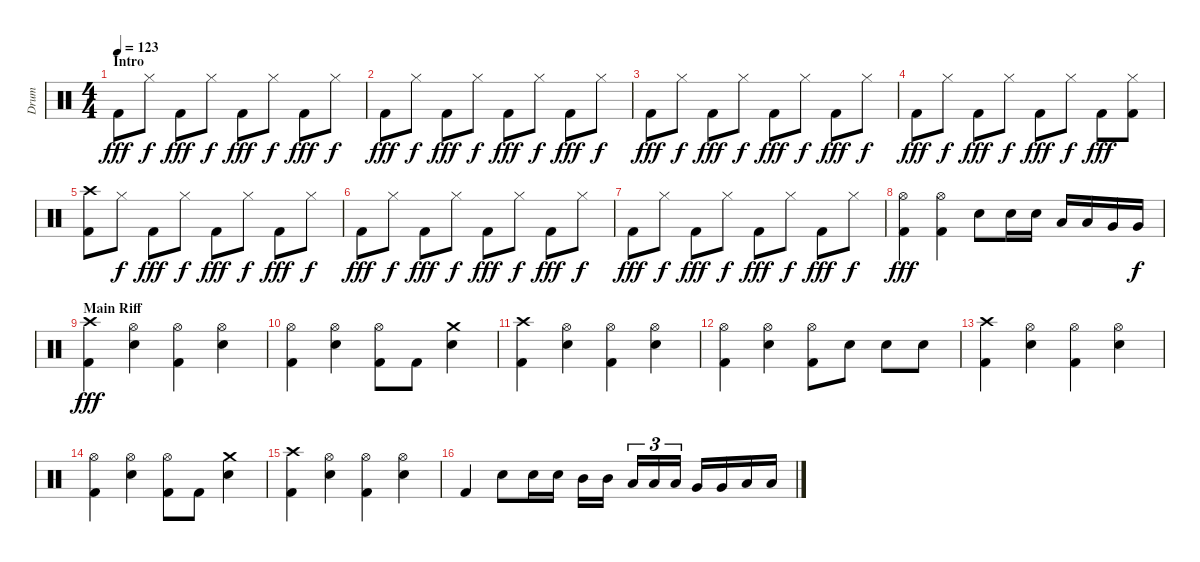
\track ("Drum" "Drum") {instrument percussion}
\staff {score}
\articulation defaults
\ts (4 4)
\section ("" "Intro")
\tempo 123
\clef neutral
\ks c "Kick (hit) 2".8{dy fff volume 11} "Hi-Hat (closed)".8{dy f} "Kick (hit) 2".8{dy fff} "Hi-Hat (closed)".8{dy f} "Kick (hit) 2".8{dy fff} "Hi-Hat (closed)".8{dy f} "Kick (hit) 2".8{dy fff} "Hi-Hat (closed)".8{dy f}
|
"Kick (hit) 2".8{dy fff} "Hi-Hat (closed)".8{dy f} "Kick (hit) 2".8{dy fff} "Hi-Hat (closed)".8{dy f} "Kick (hit) 2".8{dy fff} "Hi-Hat (closed)".8{dy f} "Kick (hit) 2".8{dy fff} "Hi-Hat (closed)".8{dy f} |
"Kick (hit) 2".8{dy fff} "Hi-Hat (closed)".8{dy f} "Kick (hit) 2".8{dy fff} "Hi-Hat (closed)".8{dy f} "Kick (hit) 2".8{dy fff} "Hi-Hat (closed)".8{dy f} "Kick (hit) 2".8{dy fff} "Hi-Hat (closed)".8{dy f} |
"Kick (hit) 2".8{dy fff} "Hi-Hat (closed)".8{dy f} "Kick (hit) 2".8{dy fff} "Hi-Hat (closed)".8{dy f} "Kick (hit) 2".8{dy fff} "Hi-Hat (closed)".8{dy f} "Kick (hit) 2".8{dy fff} ("Hi-Hat (closed)" "Kick (hit) 2").8 |
("Crash high (hit)" "Kick (hit) 2").8 "Hi-Hat (closed)".8{dy f} "Kick (hit) 2".8{dy fff} "Hi-Hat (closed)".8{dy f} "Kick (hit) 2".8{dy fff} "Hi-Hat (closed)".8{dy f} "Kick (hit) 2".8{dy fff} "Hi-Hat (closed)".8{dy f} |
"Kick (hit) 2".8{dy fff} "Hi-Hat (closed)".8{dy f} "Kick (hit) 2".8{dy fff} "Hi-Hat (closed)".8{dy f} "Kick (hit) 2".8{dy fff} "Hi-Hat (closed)".8{dy f} "Kick (hit) 2".8{dy fff} "Hi-Hat (closed)".8{dy f} |
"Kick (hit) 2".8{dy fff} "Hi-Hat (closed)".8{dy f} "Kick (hit) 2".8{dy fff} "Hi-Hat (closed)".8{dy f} "Kick (hit) 2".8{dy fff} "Hi-Hat (closed)".8{dy f} "Kick (hit) 2".8{dy fff} "Hi-Hat (closed)".8{dy f} |
("Hi-Hat (open)" "Kick (hit) 2").4{dy fff} ("Hi-Hat (open)" "Kick (hit) 2").4 "Electric Snare (hit)".8 "Electric Snare (hit)".16 "Electric Snare (hit)".16 "Low Tom (hit)".16 "Low Tom (hit)".16 "Very Low Tom (hit)".16 "Very Low Tom (hit)".16{dy f} |
\section ("" "Main Riff")
("Crash high (hit)" "Kick (hit) 2").4{dy fff} ("Hi-Hat (open)" "Electric Snare (hit)").4 ("Hi-Hat (open)" "Kick (hit) 2").4 ("Hi-Hat (open)" "Electric Snare (hit)").4 |
("Hi-Hat (open)" "Kick (hit) 2").4 ("Hi-Hat (open)" "Electric Snare (hit)").4 ("Hi-Hat (open)" "Kick (hit) 2").8 "Kick (hit) 2".8 ("Crash medium (hit)" "Electric Snare (hit)").4 |
("Crash high (hit)" "Kick (hit) 2").4 ("Hi-Hat (open)" "Electric Snare (hit)").4 ("Hi-Hat (open)" "Kick (hit) 2").4 ("Hi-Hat (open)" "Electric Snare (hit)").4 |
("Hi-Hat (open)" "Kick (hit) 2").4 ("Hi-Hat (open)" "Electric Snare (hit)").4 ("Hi-Hat (open)" "Kick (hit) 2").8 "Electric Snare (hit)".8 "Electric Snare (hit)".8 "Electric Snare (hit)".8 |
("Crash high (hit)" "Kick (hit) 2").4 ("Hi-Hat (open)" "Electric Snare (hit)").4 ("Hi-Hat (open)" "Kick (hit) 2").4 ("Hi-Hat (open)" "Electric Snare (hit)").4 |
("Hi-Hat (open)" "Kick (hit) 2").4 ("Hi-Hat (open)" "Electric Snare (hit)").4 ("Hi-Hat (open)" "Kick (hit) 2").8 "Kick (hit) 2".8 ("Crash medium (hit)" "Electric Snare (hit)").4 |
("Crash high (hit)" "Kick (hit) 2").4 ("Hi-Hat (open)" "Electric Snare (hit)").4 ("Hi-Hat (open)" "Kick (hit) 2").4 ("Hi-Hat (open)" "Electric Snare (hit)").4 |
"Kick (hit) 2".4 "Electric Snare (hit)".8 "Electric Snare (hit)".16 "Electric Snare (hit)".16 "Mid Tom (hit)".16 "Mid Tom (hit)".16 "Low Tom (hit)".16{tu (3 2)} "Low Tom (hit)".16{tu (3 2)} "Low Tom (hit)".16{tu (3 2)} "Very Low Tom (hit)".16 "Very Low Tom (hit)".16 "Low Floor Tom (hit)".16 "Low Floor Tom (hit)".16
